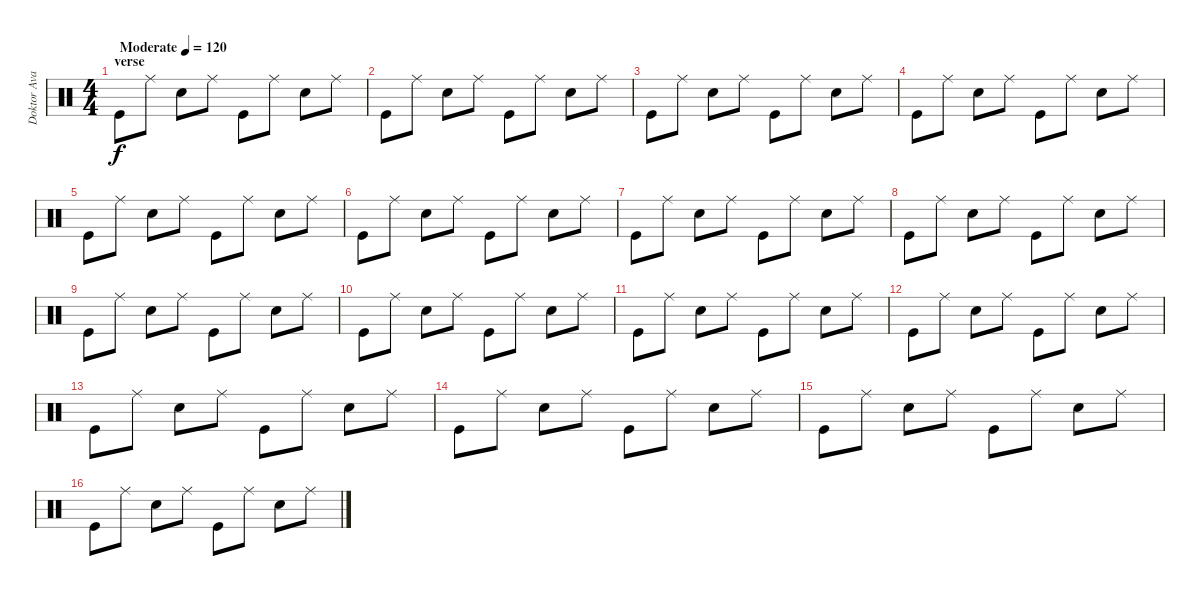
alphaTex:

\track ("Doktor Avalanche" "Doktor Ava") {instrument percussion}
\staff {score}
\articulation defaults
\ts (4 4)
\section ("" "verse")
\tempo (120 "Moderate")
\clef neutral
\ks c "Kick (hit)".8{dy f} "Ride (middle)".8 "Snare (hit) 2".8 "Ride (middle)".8 "Kick (hit)".8 "Ride (middle)".8 "Snare (hit) 2".8 "Ride (middle)".8
|
"Kick (hit)".8 "Ride (middle)".8 "Snare (hit) 2".8 "Ride (middle)".8 "Kick (hit)".8 "Ride (middle)".8 "Snare (hit) 2".8 "Ride (middle)".8 |
"Kick (hit)".8 "Ride (middle)".8 "Snare (hit) 2".8 "Ride (middle)".8 "Kick (hit)".8 "Ride (middle)".8 "Snare (hit) 2".8 "Ride (middle)".8 |
"Kick (hit)".8 "Ride (middle)".8 "Snare (hit) 2".8 "Ride (middle)".8 "Kick (hit)".8 "Ride (middle)".8 "Snare (hit) 2".8 "Ride (middle)".8 |
"Kick (hit)".8 "Ride (middle)".8 "Snare (hit) 2".8 "Ride (middle)".8 "Kick (hit)".8 "Ride (middle)".8 "Snare (hit) 2".8 "Ride (middle)".8 |
"Kick (hit)".8 "Ride (middle)".8 "Snare (hit) 2".8 "Ride (middle)".8 "Kick (hit)".8 "Ride (middle)".8 "Snare (hit) 2".8 "Ride (middle)".8 |
"Kick (hit)".8 "Ride (middle)".8 "Snare (hit) 2".8 "Ride (middle)".8 "Kick (hit)".8 "Ride (middle)".8 "Snare (hit) 2".8 "Ride (middle)".8 |
"Kick (hit)".8 "Ride (middle)".8 "Snare (hit) 2".8 "Ride (middle)".8 "Kick (hit)".8 "Ride (middle)".8 "Snare (hit) 2".8 "Ride (middle)".8 |
"Kick (hit)".8 "Ride (middle)".8 "Snare (hit) 2".8 "Ride (middle)".8 "Kick (hit)".8 "Ride (middle)".8 "Snare (hit) 2".8 "Ride (middle)".8 |
"Kick (hit)".8 "Ride (middle)".8 "Snare (hit) 2".8 "Ride (middle)".8 "Kick (hit)".8 "Ride (middle)".8 "Snare (hit) 2".8 "Ride (middle)".8 |
"Kick (hit)".8 "Ride (middle)".8 "Snare (hit) 2".8 "Ride (middle)".8 "Kick (hit)".8 "Ride (middle)".8 "Snare (hit) 2".8 "Ride (middle)".8 |
"Kick (hit)".8 "Ride (middle)".8 "Snare (hit) 2".8 "Ride (middle)".8 "Kick (hit)".8 "Ride (middle)".8 "Snare (hit) 2".8 "Ride (middle)".8 |
"Kick (hit)".8 "Ride (middle)".8 "Snare (hit) 2".8 "Ride (middle)".8 "Kick (hit)".8 "Ride (middle)".8 "Snare (hit) 2".8 "Ride (middle)".8 |
"Kick (hit)".8 "Ride (middle)".8 "Snare (hit) 2".8 "Ride (middle)".8 "Kick (hit)".8 "Ride (middle)".8 "Snare (hit) 2".8 "Ride (middle)".8 |
"Kick (hit)".8 "Ride (middle)".8 "Snare (hit) 2".8 "Ride (middle)".8 "Kick (hit)".8 "Ride (middle)".8 "Snare (hit) 2".8 "Ride (middle)".8 |
"Kick (hit)".8 "Ride (middle)".8 "Snare (hit) 2".8 "Ride (middle)".8 "Kick (hit)".8 "Ride (middle)".8 "Snare (hit) 2".8 "Ride (middle)".8
